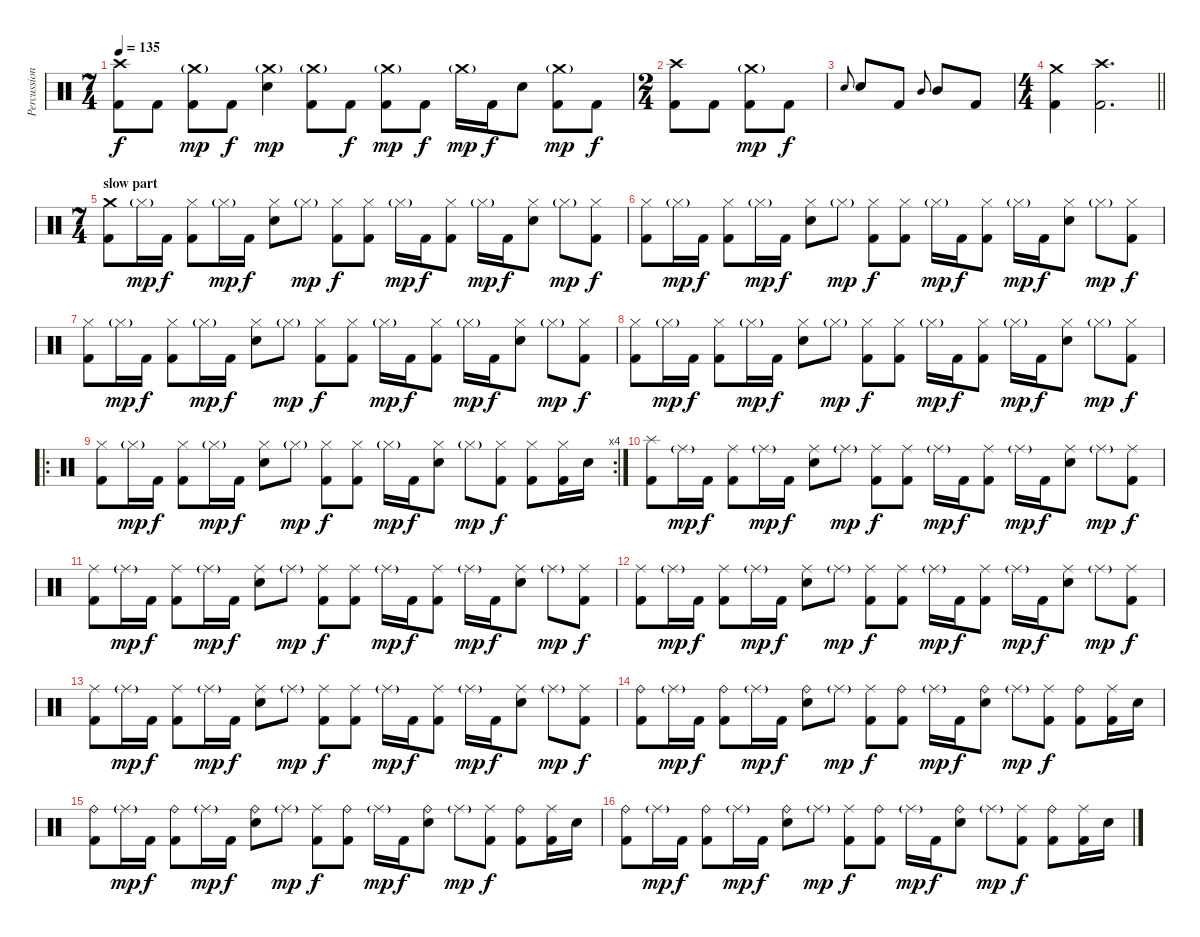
\track ("Percussion" "Percussion") {instrument percussion}
\staff {score}
\articulation defaults
\ts (7 4)
\tempo 135
\clef neutral
\ks c
("Crash high (hit)" "Kick (hit) 2").8{dy f} "Kick (hit) 2".8 ("Crash medium (hit)"{g} "Kick (hit) 2").8{dy mp} "Kick (hit) 2".8{dy f} ("Crash medium (hit)"{g} "Electric Snare (hit)").4{dy mp} ("Crash medium (hit)"{g} "Kick (hit) 2").8 "Kick (hit) 2".8{dy f} ("Crash medium (hit)"{g} "Kick (hit) 2").8{dy mp} "Kick (hit) 2".8{dy f} "Crash medium (hit)"{g}.16{dy mp} "Kick (hit) 2".16{dy f} "Electric Snare (hit)".8 ("Crash medium (hit)"{g} "Kick (hit) 2").8{dy mp} "Kick (hit) 2".8{dy f} |
\ts (2 4)
("Crash high (hit)" "Kick (hit) 2").8 "Kick (hit) 2".8 ("Crash medium (hit)"{g} "Kick (hit) 2").8{dy mp} "Kick (hit) 2".8{dy f} |
"Electric Snare (hit)".8{gr onbeat} "Electric Snare (hit)".8 "Kick (hit) 2".8 "Mid Tom (hit)".8{gr onbeat} "Mid Tom (hit)".8 "Kick (hit) 2".8 |
\ts (4 4)
\barLineRight lightlight
("Crash medium (hit)" "Kick (hit) 2").4 ("Crash high (hit)" "Kick (hit) 2").2{d} |
\ts (7 4)
\section ("" "slow part")
("Crash medium (hit)" "Kick (hit) 2").8 "Hi-Hat (closed)"{g}.16{dy mp} "Kick (hit) 2".16{dy f} ("Hi-Hat (closed)" "Kick (hit) 2").8 "Hi-Hat (closed)"{g}.16{dy mp} "Kick (hit) 2".16{dy f} ("Hi-Hat (closed)" "Electric Snare (hit)").8 "Hi-Hat (closed)"{g}.8{dy mp} ("Hi-Hat (closed)" "Kick (hit) 2").8{dy f} ("Hi-Hat (closed)" "Kick (hit) 2").8 "Hi-Hat (closed)"{g}.16{dy mp} "Kick (hit) 2".16{dy f} ("Hi-Hat (closed)" "Kick (hit) 2").8 "Hi-Hat (closed)"{g}.16{dy mp} "Kick (hit) 2".16{dy f} ("Hi-Hat (closed)" "Electric Snare (hit)").8 "Hi-Hat (closed)"{g}.8{dy mp} ("Hi-Hat (closed)" "Kick (hit) 2").8{dy f} |
("Hi-Hat (closed)" "Kick (hit) 2").8 "Hi-Hat (closed)"{g}.16{dy mp} "Kick (hit) 2".16{dy f} ("Hi-Hat (closed)" "Kick (hit) 2").8 "Hi-Hat (closed)"{g}.16{dy mp} "Kick (hit) 2".16{dy f} ("Hi-Hat (closed)" "Electric Snare (hit)").8 "Hi-Hat (closed)"{g}.8{dy mp} ("Hi-Hat (closed)" "Kick (hit) 2").8{dy f} ("Hi-Hat (closed)" "Kick (hit) 2").8 "Hi-Hat (closed)"{g}.16{dy mp} "Kick (hit) 2".16{dy f} ("Hi-Hat (closed)" "Kick (hit) 2").8 "Hi-Hat (closed)"{g}.16{dy mp} "Kick (hit) 2".16{dy f} ("Hi-Hat (closed)" "Electric Snare (hit)").8 "Hi-Hat (closed)"{g}.8{dy mp} ("Hi-Hat (closed)" "Kick (hit) 2").8{dy f} |
("Hi-Hat (closed)" "Kick (hit) 2").8 "Hi-Hat (closed)"{g}.16{dy mp} "Kick (hit) 2".16{dy f} ("Hi-Hat (closed)" "Kick (hit) 2").8 "Hi-Hat (closed)"{g}.16{dy mp} "Kick (hit) 2".16{dy f} ("Hi-Hat (closed)" "Electric Snare (hit)").8 "Hi-Hat (closed)"{g}.8{dy mp} ("Hi-Hat (closed)" "Kick (hit) 2").8{dy f} ("Hi-Hat (closed)" "Kick (hit) 2").8 "Hi-Hat (closed)"{g}.16{dy mp} "Kick (hit) 2".16{dy f} ("Hi-Hat (closed)" "Kick (hit) 2").8 "Hi-Hat (closed)"{g}.16{dy mp} "Kick (hit) 2".16{dy f} ("Hi-Hat (closed)" "Electric Snare (hit)").8 "Hi-Hat (closed)"{g}.8{dy mp} ("Hi-Hat (closed)" "Kick (hit) 2").8{dy f} |
("Hi-Hat (closed)" "Kick (hit) 2").8 "Hi-Hat (closed)"{g}.16{dy mp} "Kick (hit) 2".16{dy f} ("Hi-Hat (closed)" "Kick (hit) 2").8 "Hi-Hat (closed)"{g}.16{dy mp} "Kick (hit) 2".16{dy f} ("Hi-Hat (closed)" "Electric Snare (hit)").8 "Hi-Hat (closed)"{g}.8{dy mp} ("Hi-Hat (closed)" "Kick (hit) 2").8{dy f} ("Hi-Hat (closed)" "Kick (hit) 2").8 "Hi-Hat (closed)"{g}.16{dy mp} "Kick (hit) 2".16{dy f} ("Hi-Hat (closed)" "Kick (hit) 2").8 "Hi-Hat (closed)"{g}.16{dy mp} "Kick (hit) 2".16{dy f} ("Hi-Hat (closed)" "Electric Snare (hit)").8 "Hi-Hat (closed)"{g}.8{dy mp} ("Hi-Hat (closed)" "Kick (hit) 2").8{dy f} |
\ro
\rc 4
("Hi-Hat (closed)" "Kick (hit) 2").8 "Hi-Hat (closed)"{g}.16{dy mp} "Kick (hit) 2".16{dy f} ("Hi-Hat (closed)" "Kick (hit) 2").8 "Hi-Hat (closed)"{g}.16{dy mp} "Kick (hit) 2".16{dy f} ("Hi-Hat (closed)" "Electric Snare (hit)").8 "Hi-Hat (closed)"{g}.8{dy mp} ("Hi-Hat (closed)" "Kick (hit) 2").8{dy f} ("Hi-Hat (closed)" "Kick (hit) 2").8 "Hi-Hat (closed)"{g}.16{dy mp} "Kick (hit) 2".16{dy f} ("Hi-Hat (closed)" "Electric Snare (hit)").8 "Hi-Hat (closed)"{g}.8{dy mp} ("Hi-Hat (closed)" "Kick (hit) 2").8{dy f} ("Hi-Hat (closed)" "Kick (hit) 2").8 ("Hi-Hat (closed)" "Kick (hit) 2").16 "Electric Snare (hit)".16 |
("Splash (hit)" "Kick (hit) 2").8 "Ride (middle)"{g}.16{dy mp} "Kick (hit) 2".16{dy f} ("Ride (middle)" "Kick (hit) 2").8 "Ride (middle)"{g}.16{dy mp} "Kick (hit) 2".16{dy f} ("Ride (middle)" "Electric Snare (hit)").8 "Ride (middle)"{g}.8{dy mp} ("Ride (middle)" "Kick (hit) 2").8{dy f} ("Ride (middle)" "Kick (hit) 2").8 "Ride (middle)"{g}.16{dy mp} "Kick (hit) 2".16{dy f} ("Ride (middle)" "Kick (hit) 2").8 "Ride (middle)"{g}.16{dy mp} "Kick (hit) 2".16{dy f} ("Ride (middle)" "Electric Snare (hit)").8 "Ride (middle)"{g}.8{dy mp} ("Ride (middle)" "Kick (hit) 2").8{dy f} |
("Ride (middle)" "Kick (hit) 2").8 "Ride (middle)"{g}.16{dy mp} "Kick (hit) 2".16{dy f} ("Ride (middle)" "Kick (hit) 2").8 "Ride (middle)"{g}.16{dy mp} "Kick (hit) 2".16{dy f} ("Ride (middle)" "Electric Snare (hit)").8 "Ride (middle)"{g}.8{dy mp} ("Ride (middle)" "Kick (hit) 2").8{dy f} ("Ride (middle)" "Kick (hit) 2").8 "Ride (middle)"{g}.16{dy mp} "Kick (hit) 2".16{dy f} ("Ride (middle)" "Kick (hit) 2").8 "Ride (middle)"{g}.16{dy mp} "Kick (hit) 2".16{dy f} ("Ride (middle)" "Electric Snare (hit)").8 "Ride (middle)"{g}.8{dy mp} ("Ride (middle)" "Kick (hit) 2").8{dy f} |
("Ride (middle)" "Kick (hit) 2").8 "Ride (middle)"{g}.16{dy mp} "Kick (hit) 2".16{dy f} ("Ride (middle)" "Kick (hit) 2").8 "Ride (middle)"{g}.16{dy mp} "Kick (hit) 2".16{dy f} ("Ride (middle)" "Electric Snare (hit)").8 "Ride (middle)"{g}.8{dy mp} ("Ride (middle)" "Kick (hit) 2").8{dy f} ("Ride (middle)" "Kick (hit) 2").8 "Ride (middle)"{g}.16{dy mp} "Kick (hit) 2".16{dy f} ("Ride (middle)" "Kick (hit) 2").8 "Ride (middle)"{g}.16{dy mp} "Kick (hit) 2".16{dy f} ("Ride (middle)" "Electric Snare (hit)").8 "Ride (middle)"{g}.8{dy mp} ("Ride (middle)" "Kick (hit) 2").8{dy f} |
("Ride (middle)" "Kick (hit) 2").8 "Ride (middle)"{g}.16{dy mp} "Kick (hit) 2".16{dy f} ("Ride (middle)" "Kick (hit) 2").8 "Ride (middle)"{g}.16{dy mp} "Kick (hit) 2".16{dy f} ("Ride (middle)" "Electric Snare (hit)").8 "Ride (middle)"{g}.8{dy mp} ("Ride (middle)" "Kick (hit) 2").8{dy f} ("Ride (middle)" "Kick (hit) 2").8 "Ride (middle)"{g}.16{dy mp} "Kick (hit) 2".16{dy f} ("Ride (middle)" "Kick (hit) 2").8 "Ride (middle)"{g}.16{dy mp} "Kick (hit) 2".16{dy f} ("Ride (middle)" "Electric Snare (hit)").8 "Ride (middle)"{g}.8{dy mp} ("Ride (middle)" "Kick (hit) 2").8{dy f} |
("Ride (bell)" "Kick (hit) 2").8 "Ride (middle)"{g}.16{dy mp} "Kick (hit) 2".16{dy f} ("Ride (bell)" "Kick (hit) 2").8 "Ride (middle)"{g}.16{dy mp} "Kick (hit) 2".16{dy f} ("Ride (bell)" "Electric Snare (hit)").8 "Ride (middle)"{g}.8{dy mp} ("Ride (middle)" "Kick (hit) 2").8{dy f} ("Ride (bell)" "Kick (hit) 2").8 "Ride (middle)"{g}.16{dy mp} "Kick (hit) 2".16{dy f} ("Ride (bell)" "Electric Snare (hit)").8 "Ride (middle)"{g}.8{dy mp} ("Ride (middle)" "Kick (hit) 2").8{dy f} ("Ride (bell)" "Kick (hit) 2").8 ("Ride (middle)" "Kick (hit) 2").16 "Electric Snare (hit)".16 |
("Ride (bell)" "Kick (hit) 2").8 "Ride (middle)"{g}.16{dy mp} "Kick (hit) 2".16{dy f} ("Ride (bell)" "Kick (hit) 2").8 "Ride (middle)"{g}.16{dy mp} "Kick (hit) 2".16{dy f} ("Ride (bell)" "Electric Snare (hit)").8 "Ride (middle)"{g}.8{dy mp} ("Ride (middle)" "Kick (hit) 2").8{dy f} ("Ride (bell)" "Kick (hit) 2").8 "Ride (middle)"{g}.16{dy mp} "Kick (hit) 2".16{dy f} ("Ride (bell)" "Electric Snare (hit)").8 "Ride (middle)"{g}.8{dy mp} ("Ride (middle)" "Kick (hit) 2").8{dy f} ("Ride (bell)" "Kick (hit) 2").8 ("Ride (middle)" "Kick (hit) 2").16 "Electric Snare (hit)".16 |
("Ride (bell)" "Kick (hit) 2").8 "Ride (middle)"{g}.16{dy mp} "Kick (hit) 2".16{dy f} ("Ride (bell)" "Kick (hit) 2").8 "Ride (middle)"{g}.16{dy mp} "Kick (hit) 2".16{dy f} ("Ride (bell)" "Electric Snare (hit)").8 "Ride (middle)"{g}.8{dy mp} ("Ride (middle)" "Kick (hit) 2").8{dy f} ("Ride (bell)" "Kick (hit) 2").8 "Ride (middle)"{g}.16{dy mp} "Kick (hit) 2".16{dy f} ("Ride (bell)" "Electric Snare (hit)").8 "Ride (middle)"{g}.8{dy mp} ("Ride (middle)" "Kick (hit) 2").8{dy f} ("Ride (bell)" "Kick (hit) 2").8 ("Ride (middle)" "Kick (hit) 2").16 "Electric Snare (hit)".16
